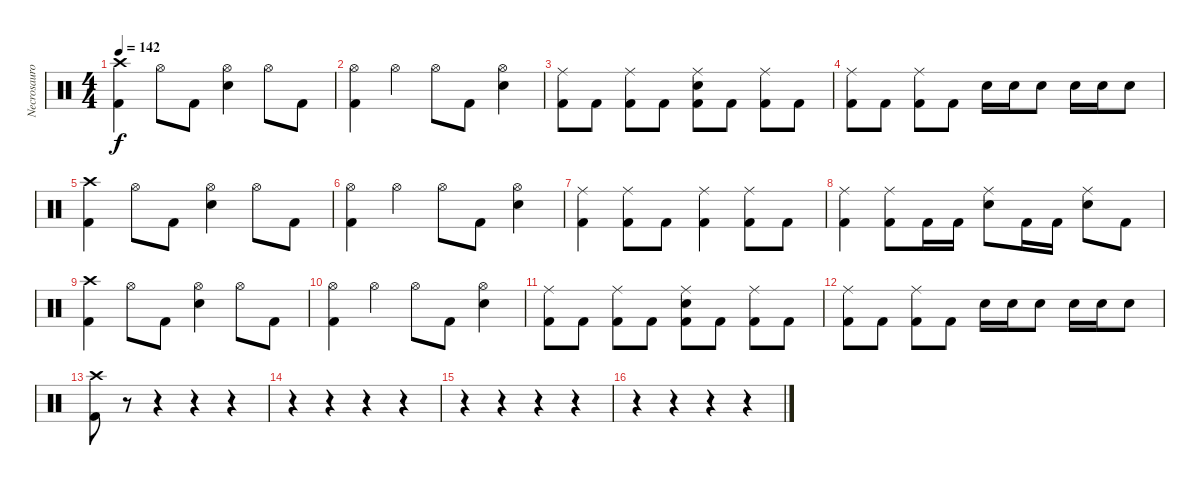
\track ("Necrosauron" "Necrosauro") {instrument percussion}
\staff {score}
\articulation defaults
\ts (4 4)
\tempo 142
\clef neutral
\ks c
("Crash high (hit)" "Kick (hit) 2").4{dy f} "Hi-Hat (open)".8 "Kick (hit) 2".8 ("Hi-Hat (open)" "Snare (hit) 2").4 "Hi-Hat (open)".8 "Kick (hit) 2".8 |
("Hi-Hat (open)" "Kick (hit) 2").4 "Hi-Hat (open)".4 "Hi-Hat (open)".8 "Kick (hit) 2".8 ("Hi-Hat (open)" "Snare (hit) 2").4 |
("Ride (middle)" "Kick (hit) 2").8 "Kick (hit) 2".8 ("Ride (middle)" "Kick (hit) 2").8 "Kick (hit) 2".8 ("Ride (middle)" "Snare (hit) 2" "Kick (hit) 2").8 "Kick (hit) 2".8 ("Ride (middle)" "Kick (hit) 2").8 "Kick (hit) 2".8 |
("Ride (middle)" "Kick (hit) 2").8 "Kick (hit) 2".8 ("Ride (middle)" "Kick (hit) 2").8 "Kick (hit) 2".8 "Snare (hit) 2".16 "Snare (hit) 2".16 "Snare (hit) 2".8 "Snare (hit) 2".16 "Snare (hit) 2".16 "Snare (hit) 2".8 |
("Crash high (hit)" "Kick (hit) 2").4 "Hi-Hat (open)".8 "Kick (hit) 2".8 ("Hi-Hat (open)" "Snare (hit) 2").4 "Hi-Hat (open)".8 "Kick (hit) 2".8 |
("Hi-Hat (open)" "Kick (hit) 2").4 "Hi-Hat (open)".4 "Hi-Hat (open)".8 "Kick (hit) 2".8 ("Hi-Hat (open)" "Snare (hit) 2").4 |
("Ride (middle)" "Kick (hit) 2").4 ("Ride (middle)" "Kick (hit) 2").8 "Kick (hit) 2".8 ("Ride (middle)" "Kick (hit) 2").4 ("Ride (middle)" "Kick (hit) 2").8 "Kick (hit) 2".8 |
("Ride (middle)" "Kick (hit) 2").4 ("Ride (middle)" "Kick (hit) 2").8 "Kick (hit) 2".16 "Kick (hit) 2".16 ("Ride (middle)" "Snare (hit) 2").8 "Kick (hit) 2".16 "Kick (hit) 2".16 ("Ride (middle)" "Snare (hit) 2").8 "Kick (hit) 2".8 |
("Crash high (hit)" "Kick (hit) 2").4 "Hi-Hat (open)".8 "Kick (hit) 2".8 ("Hi-Hat (open)" "Snare (hit) 2").4 "Hi-Hat (open)".8 "Kick (hit) 2".8 |
("Hi-Hat (open)" "Kick (hit) 2").4 "Hi-Hat (open)".4 "Hi-Hat (open)".8 "Kick (hit) 2".8 ("Hi-Hat (open)" "Snare (hit) 2").4 |
("Ride (middle)" "Kick (hit) 2").8 "Kick (hit) 2".8 ("Ride (middle)" "Kick (hit) 2").8 "Kick (hit) 2".8 ("Ride (middle)" "Snare (hit) 2" "Kick (hit) 2").8 "Kick (hit) 2".8 ("Ride (middle)" "Kick (hit) 2").8 "Kick (hit) 2".8 |
("Ride (middle)" "Kick (hit) 2").8 "Kick (hit) 2".8 ("Ride (middle)" "Kick (hit) 2").8 "Kick (hit) 2".8 "Snare (hit) 2".16 "Snare (hit) 2".16 "Snare (hit) 2".8 "Snare (hit) 2".16 "Snare (hit) 2".16 "Snare (hit) 2".8 |
("Crash high (hit)" "Kick (hit) 2").8 r.8 r.4 r.4 r.4 |
r.4 r.4 r.4 r.4 |
r.4 r.4 r.4 r.4 |
r.4 r.4 r.4 r.4
